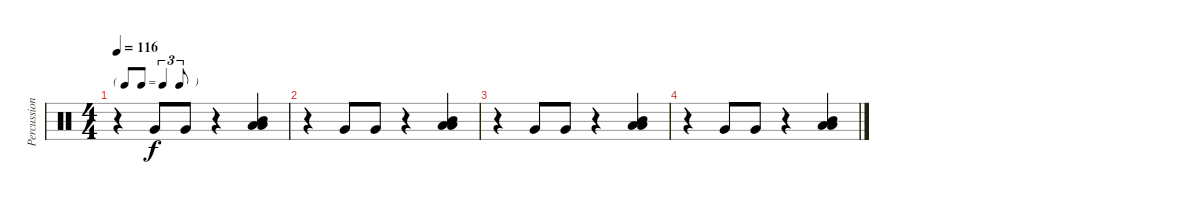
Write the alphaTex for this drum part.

\track ("Percussion" "Percussion") {instrument percussion}
\staff {score}
\articulation defaults
\ts (4 4)
\tf triplet8th
\tempo 116
\clef neutral
\ks c
r.4{dy f} "Very Low Tom (hit)".8 "Very Low Tom (hit)".8 r.4 ("Mid Tom (hit)" "Low Floor Tom (hit)" "Low Tom (hit)").4 |
r.4 "Very Low Tom (hit)".8 "Very Low Tom (hit)".8 r.4 ("Mid Tom (hit)" "Low Floor Tom (hit)" "Low Tom (hit)").4 |
r.4 "Very Low Tom (hit)".8 "Very Low Tom (hit)".8 r.4 ("Mid Tom (hit)" "Low Floor Tom (hit)" "Low Tom (hit)").4 |
r.4 "Very Low Tom (hit)".8 "Very Low Tom (hit)".8 r.4 ("Mid Tom (hit)" "Low Floor Tom (hit)" "Low Tom (hit)").4
